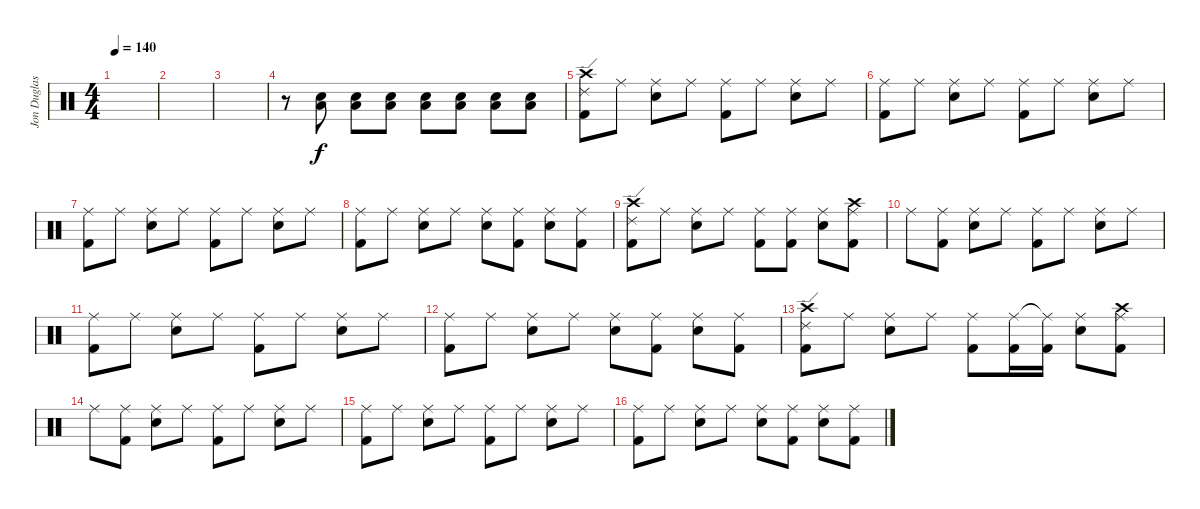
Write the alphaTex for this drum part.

\track ("Jon Duglas (Drums)" "Jon Duglas") {instrument percussion}
\staff {score}
\articulation defaults
\ts (4 4)
\tempo 140
\clef neutral
\ks c
|
|
|
r.8 ("Electric Snare (hit)" "Low Floor Tom (hit)").8 ("Electric Snare (hit)" "Low Floor Tom (hit)").8 ("Electric Snare (hit)" "Low Floor Tom (hit)").8 ("Electric Snare (hit)" "Low Floor Tom (hit)").8 ("Electric Snare (hit)" "Low Floor Tom (hit)").8 ("Electric Snare (hit)" "Low Floor Tom (hit)").8 ("Electric Snare (hit)" "Low Floor Tom (hit)").8 |
("Ride (edge) 2" "Kick (hit) 2" "Crash high (hit)").8 "Ride (middle)".8 ("Ride (middle)" "Electric Snare (hit)").8 "Ride (middle)".8 ("Ride (middle)" "Kick (hit) 2").8 "Ride (middle)".8 ("Ride (middle)" "Electric Snare (hit)").8 "Ride (middle)".8 |
("Ride (middle)" "Kick (hit) 2").8 "Ride (middle)".8 ("Ride (middle)" "Electric Snare (hit)").8 "Ride (middle)".8 ("Ride (middle)" "Kick (hit) 2").8 "Ride (middle)".8 ("Ride (middle)" "Electric Snare (hit)").8 "Ride (middle)".8 |
("Ride (middle)" "Kick (hit) 2").8 "Ride (middle)".8 ("Ride (middle)" "Electric Snare (hit)").8 "Ride (middle)".8 ("Ride (middle)" "Kick (hit) 2").8 "Ride (middle)".8 ("Ride (middle)" "Electric Snare (hit)").8 "Ride (middle)".8 |
("Ride (middle)" "Kick (hit) 2").8 "Ride (middle)".8 ("Ride (middle)" "Electric Snare (hit)").8 "Ride (middle)".8 ("Ride (middle)" "Electric Snare (hit)").8 ("Ride (middle)" "Kick (hit) 2").8 ("Ride (middle)" "Electric Snare (hit)").8 ("Ride (middle)" "Kick (hit) 2").8 |
("Ride (edge) 2" "Kick (hit) 2" "Crash high (hit)").8 "Ride (middle)".8 ("Ride (middle)" "Electric Snare (hit)").8 "Ride (middle)".8 ("Ride (middle)" "Kick (hit) 2").8 ("Ride (middle)" "Kick (hit) 2").8 ("Ride (middle)" "Electric Snare (hit)").8 ("Ride (middle)" "Kick (hit) 2" "Crash high (hit)").8 |
"Ride (middle)".8 ("Ride (middle)" "Kick (hit) 2").8 ("Ride (middle)" "Electric Snare (hit)").8 "Ride (middle)".8 ("Ride (middle)" "Kick (hit) 2").8 "Ride (middle)".8 ("Ride (middle)" "Electric Snare (hit)").8 "Ride (middle)".8 |
("Ride (middle)" "Kick (hit) 2").8 "Ride (middle)".8 ("Ride (middle)" "Electric Snare (hit)").8 "Ride (middle)".8 ("Ride (middle)" "Kick (hit) 2").8 "Ride (middle)".8 ("Ride (middle)" "Electric Snare (hit)").8 "Ride (middle)".8 |
("Ride (middle)" "Kick (hit) 2").8 "Ride (middle)".8 ("Ride (middle)" "Electric Snare (hit)").8 "Ride (middle)".8 ("Ride (middle)" "Electric Snare (hit)").8 ("Ride (middle)" "Kick (hit) 2").8 ("Ride (middle)" "Electric Snare (hit)").8 ("Ride (middle)" "Kick (hit) 2").8 |
("Ride (edge) 2" "Kick (hit) 2" "Crash high (hit)").8 "Ride (middle)".8 ("Ride (middle)" "Electric Snare (hit)").8 "Ride (middle)".8 ("Ride (middle)" "Kick (hit) 2").8 ("Ride (middle)" "Kick (hit) 2").16 ("Ride (middle)"{t} "Kick (hit) 2").16 ("Ride (middle)" "Electric Snare (hit)").8 ("Ride (middle)" "Kick (hit) 2" "Crash high (hit)").8 |
"Ride (middle)".8 ("Ride (middle)" "Kick (hit) 2").8 ("Ride (middle)" "Electric Snare (hit)").8 "Ride (middle)".8 ("Ride (middle)" "Kick (hit) 2").8 "Ride (middle)".8 ("Ride (middle)" "Electric Snare (hit)").8 "Ride (middle)".8 |
("Ride (middle)" "Kick (hit) 2").8 "Ride (middle)".8 ("Ride (middle)" "Electric Snare (hit)").8 "Ride (middle)".8 ("Ride (middle)" "Kick (hit) 2").8 "Ride (middle)".8 ("Ride (middle)" "Electric Snare (hit)").8 "Ride (middle)".8 |
("Ride (middle)" "Kick (hit) 2").8 "Ride (middle)".8 ("Ride (middle)" "Electric Snare (hit)").8 "Ride (middle)".8 ("Ride (middle)" "Electric Snare (hit)").8 ("Ride (middle)" "Kick (hit) 2").8 ("Ride (middle)" "Electric Snare (hit)").8 ("Ride (middle)" "Kick (hit) 2").8
